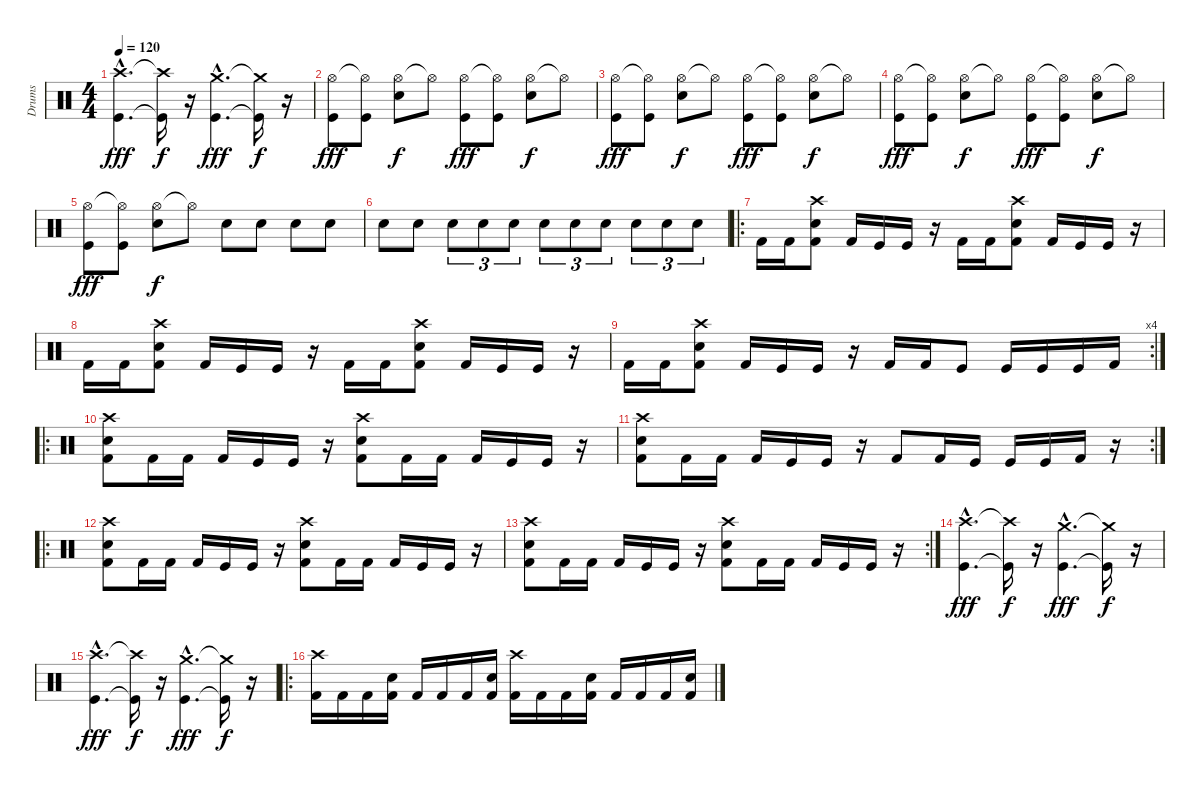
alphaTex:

\track ("Drums" "Drums") {instrument percussion}
\staff {score}
\articulation defaults
\ts (4 4)
\tempo 120
\clef neutral
\ks c
("Crash high (hit)"{hac} "Kick (hit)"{hac}).4{d dy fff} ("Crash high (hit)"{t} "Kick (hit)"{t}).16{dy f} r.16 ("Crash medium (hit)"{hac} "Kick (hit)"{hac}).4{d dy fff} ("Crash medium (hit)"{t} "Kick (hit)"{t}).16{dy f} r.16 |
("Hi-Hat (open)" "Kick (hit)").8{dy fff} ("Hi-Hat (open)"{t} "Kick (hit)").8 ("Hi-Hat (open)" "Snare (hit) 2").8{dy f} "Hi-Hat (open)"{t}.8 ("Hi-Hat (open)" "Kick (hit)").8{dy fff} ("Hi-Hat (open)"{t} "Kick (hit)").8 ("Hi-Hat (open)" "Snare (hit) 2").8{dy f} "Hi-Hat (open)"{t}.8 |
("Hi-Hat (open)" "Kick (hit)").8{dy fff} ("Hi-Hat (open)"{t} "Kick (hit)").8 ("Hi-Hat (open)" "Snare (hit) 2").8{dy f} "Hi-Hat (open)"{t}.8 ("Hi-Hat (open)" "Kick (hit)").8{dy fff} ("Hi-Hat (open)"{t} "Kick (hit)").8 ("Hi-Hat (open)" "Snare (hit) 2").8{dy f} "Hi-Hat (open)"{t}.8 |
("Hi-Hat (open)" "Kick (hit)").8{dy fff} ("Hi-Hat (open)"{t} "Kick (hit)").8 ("Hi-Hat (open)" "Snare (hit) 2").8{dy f} "Hi-Hat (open)"{t}.8 ("Hi-Hat (open)" "Kick (hit)").8{dy fff} ("Hi-Hat (open)"{t} "Kick (hit)").8 ("Hi-Hat (open)" "Snare (hit) 2").8{dy f} "Hi-Hat (open)"{t}.8 |
("Hi-Hat (open)" "Kick (hit)").8{dy fff} ("Hi-Hat (open)"{t} "Kick (hit)").8 ("Hi-Hat (open)" "Snare (hit) 2").8{dy f} "Hi-Hat (open)"{t}.8 "Snare (hit) 2".8 "Snare (hit) 2".8 "Snare (hit) 2".8 "Snare (hit) 2".8 |
"Snare (hit) 2".8 "Snare (hit) 2".8 "Snare (hit) 2".8{tu (3 2)} "Snare (hit) 2".8{tu (3 2)} "Snare (hit) 2".8{tu (3 2)} "Snare (hit) 2".8{tu (3 2)} "Snare (hit) 2".8{tu (3 2)} "Snare (hit) 2".8{tu (3 2)} "Snare (hit) 2".8{tu (3 2)} "Snare (hit) 2".8{tu (3 2)} "Snare (hit) 2".8{tu (3 2)} |
\ro "Kick (hit) 2".16 "Kick (hit) 2".16
("Crash high (hit)" "Snare (hit) 2" "Kick (hit) 2").8 "Kick (hit) 2".16 "Kick (hit)".16 "Kick (hit)".16 r.16 "Kick (hit) 2".16 "Kick (hit) 2".16 ("Crash high (hit)" "Snare (hit) 2" "Kick (hit) 2").8 "Kick (hit) 2".16 "Kick (hit)".16 "Kick (hit)".16 r.16 |
"Kick (hit) 2".16 "Kick (hit) 2".16 ("Crash high (hit)" "Snare (hit) 2" "Kick (hit) 2").8 "Kick (hit) 2".16 "Kick (hit)".16 "Kick (hit)".16 r.16 "Kick (hit) 2".16 "Kick (hit) 2".16 ("Crash high (hit)" "Snare (hit) 2" "Kick (hit) 2").8 "Kick (hit) 2".16 "Kick (hit)".16 "Kick (hit)".16 r.16 |
\rc 4 "Kick (hit) 2".16 "Kick (hit) 2".16
("Crash high (hit)" "Snare (hit) 2" "Kick (hit) 2").8 "Kick (hit) 2".16 "Kick (hit)".16 "Kick (hit)".16 r.16 "Kick (hit) 2".16 "Kick (hit) 2".16 "Kick (hit)".8 "Kick (hit)".16 "Kick (hit)".16 "Kick (hit)".16 "Kick (hit) 2".16 |
\ro
("Crash high (hit)" "Snare (hit) 2" "Kick (hit) 2").8 "Kick (hit) 2".16 "Kick (hit) 2".16 "Kick (hit) 2".16 "Kick (hit)".16 "Kick (hit)".16 r.16 ("Crash high (hit)" "Snare (hit) 2" "Kick (hit) 2").8 "Kick (hit) 2".16 "Kick (hit) 2".16 "Kick (hit) 2".16 "Kick (hit)".16 "Kick (hit)".16 r.16 |
\rc 2
("Crash high (hit)" "Snare (hit) 2" "Kick (hit) 2").8 "Kick (hit) 2".16 "Kick (hit) 2".16 "Kick (hit) 2".16 "Kick (hit)".16 "Kick (hit)".16 r.16 "Kick (hit) 2".8 "Kick (hit) 2".16 "Kick (hit)".16 "Kick (hit)".16 "Kick (hit)".16 "Kick (hit) 2".16 r.16 |
\ro
("Crash high (hit)" "Snare (hit) 2" "Kick (hit) 2").8 "Kick (hit) 2".16 "Kick (hit) 2".16 "Kick (hit) 2".16 "Kick (hit)".16 "Kick (hit)".16 r.16 ("Crash high (hit)" "Snare (hit) 2" "Kick (hit) 2").8 "Kick (hit) 2".16 "Kick (hit) 2".16 "Kick (hit) 2".16 "Kick (hit)".16 "Kick (hit)".16 r.16 |
\rc 2
("Crash high (hit)" "Snare (hit) 2" "Kick (hit) 2").8 "Kick (hit) 2".16 "Kick (hit) 2".16 "Kick (hit) 2".16 "Kick (hit)".16 "Kick (hit)".16 r.16 ("Crash high (hit)" "Snare (hit) 2" "Kick (hit) 2").8 "Kick (hit) 2".16 "Kick (hit) 2".16 "Kick (hit) 2".16 "Kick (hit)".16 "Kick (hit)".16 r.16 |
("Crash high (hit)"{hac} "Kick (hit)"{hac}).4{d dy fff} ("Crash high (hit)"{t} "Kick (hit)"{t}).16{dy f} r.16 ("Crash medium (hit)"{hac} "Kick (hit)"{hac}).4{d dy fff} ("Crash medium (hit)"{t} "Kick (hit)"{t}).16{dy f} r.16 |
("Crash high (hit)"{hac} "Kick (hit)"{hac}).4{d dy fff} ("Crash high (hit)"{t} "Kick (hit)"{t}).16{dy f} r.16 ("Crash medium (hit)"{hac} "Kick (hit)"{hac}).4{d dy fff} ("Crash medium (hit)"{t} "Kick (hit)"{t}).16{dy f} r.16 |
\ro
("Crash high (hit)" "Kick (hit) 2").16 "Kick (hit) 2".16 "Kick (hit) 2".16 ("Snare (hit) 2" "Kick (hit) 2").16 "Kick (hit) 2".16 "Kick (hit) 2".16 "Kick (hit) 2".16 ("Snare (hit) 2" "Kick (hit) 2").16 ("Crash high (hit)" "Kick (hit) 2").16 "Kick (hit) 2".16 "Kick (hit) 2".16 ("Snare (hit) 2" "Kick (hit) 2").16 "Kick (hit) 2".16 "Kick (hit) 2".16 "Kick (hit) 2".16 ("Snare (hit) 2" "Kick (hit) 2").16
